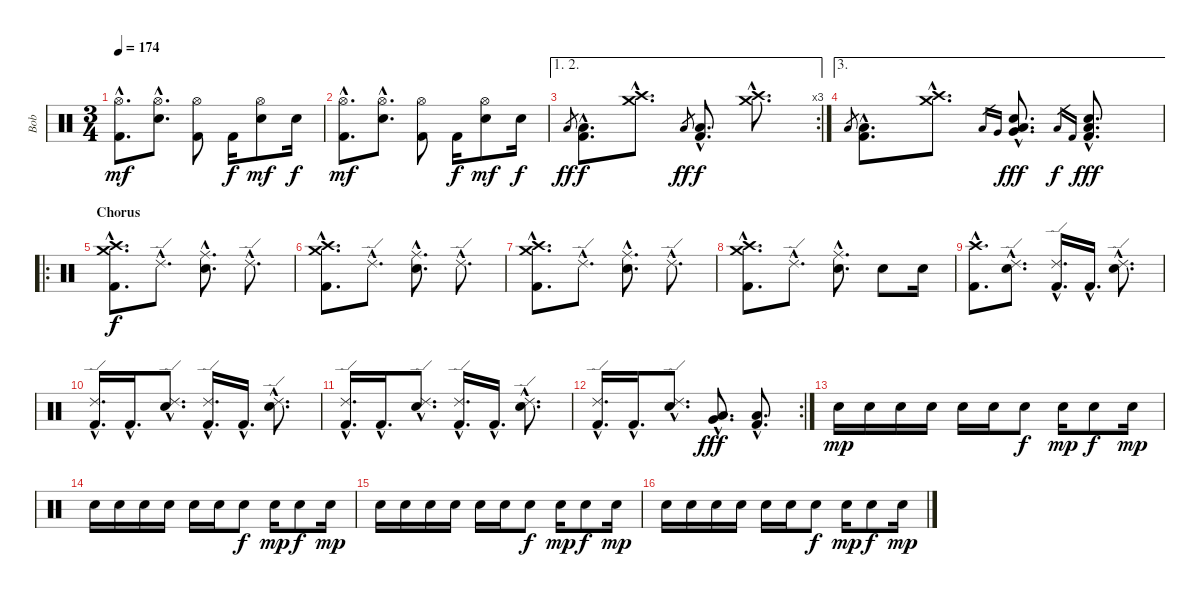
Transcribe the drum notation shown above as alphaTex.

\track ("Bob" "Bob") {instrument percussion}
\staff {score}
\articulation defaults
\ts (3 4)
\tempo 174
\clef neutral
\ks c
("Hi-Hat (open)"{hac} "Kick (hit) 2"{hac}).8{d dy mf} ("Hi-Hat (open)"{hac} "Electric Snare (hit)"{hac}).8{d} ("Hi-Hat (open)" "Kick (hit) 2").8 "Kick (hit) 2".16{dy f} ("Hi-Hat (open)" "Electric Snare (hit)").8{dy mf} "Electric Snare (hit)".16{dy f} |
("Hi-Hat (open)"{hac} "Kick (hit) 2"{hac}).8{d dy mf} ("Hi-Hat (open)"{hac} "Electric Snare (hit)"{hac}).8{d} ("Hi-Hat (open)" "Kick (hit) 2").8 "Kick (hit) 2".16{dy f} ("Hi-Hat (open)" "Electric Snare (hit)").8{dy mf} "Electric Snare (hit)".16{dy f} |
\ae (1 2)
\rc 3 "Low Floor Tom (hit)".8{gr dy ff}
("Low Floor Tom (hit)"{hac} "Kick (hit) 2"{hac}).8{d dy f} ("Crash medium (hit)"{hac} "Crash high (hit)"{hac}).8{d} "Low Floor Tom (hit)".8{gr dy ff} ("Low Floor Tom (hit)"{hac} "Kick (hit) 2"{hac}).8{d dy f} ("Crash medium (hit)"{hac} "Crash high (hit)"{hac}).8{d} |
\ae 3 "Low Floor Tom (hit)".8{gr}
("Low Floor Tom (hit)"{hac} "Kick (hit) 2"{hac}).8{d} ("Crash medium (hit)"{hac} "Crash high (hit)"{hac}).8{d} "Low Tom (hit)".16{gr} "Very Low Tom (hit)".16{gr} ("Low Tom (hit)"{hac} "Very Low Tom (hit)"{hac} "Electric Snare (hit)"{hac}).8{d dy fff} "Low Floor Tom (hit)".16{gr dy f} "Kick (hit) 2".16{gr} ("Electric Snare (hit)"{hac} "Low Floor Tom (hit)"{hac} "Kick (hit) 2"{hac}).8{d dy fff} |
\ro
\section ("" "Chorus")
("Crash high (hit)"{hac} "Crash medium (hit)"{hac} "Kick (hit) 2"{hac}).8{d dy f} "Ride (edge) 2"{hac}.8{d} ("Ride (middle)"{hac} "Electric Snare (hit)"{hac}).8{d} "Ride (edge) 2"{hac}.8{d} |
("Crash high (hit)"{hac} "Crash medium (hit)"{hac} "Kick (hit) 2"{hac}).8{d} "Ride (edge) 2"{hac}.8{d} ("Ride (middle)"{hac} "Electric Snare (hit)"{hac}).8{d} "Ride (edge) 2"{hac}.8{d} |
("Crash high (hit)"{hac} "Crash medium (hit)"{hac} "Kick (hit) 2"{hac}).8{d} "Ride (edge) 2"{hac}.8{d} ("Ride (middle)"{hac} "Electric Snare (hit)"{hac}).8{d} "Ride (edge) 2"{hac}.8{d} |
("Crash high (hit)"{hac} "Crash medium (hit)"{hac} "Kick (hit) 2"{hac}).8{d} "Ride (edge) 2"{hac}.8{d} ("Ride (middle)"{hac} "Electric Snare (hit)"{hac}).8{d} "Electric Snare (hit)".8 "Electric Snare (hit)".16 |
("Crash high (hit)"{hac} "Kick (hit) 2"{hac}).8{d} ("Ride (edge) 2"{hac} "Electric Snare (hit)"{hac}).8{d} ("Ride (edge) 2"{hac} "Kick (hit) 2"{hac}).16{d} "Kick (hit) 2"{hac}.16{d} ("Ride (edge) 2"{hac} "Electric Snare (hit)"{hac}).8{d} |
("Ride (edge) 2"{hac} "Kick (hit) 2"{hac}).16{d} "Kick (hit) 2"{hac}.16{d} ("Ride (edge) 2"{hac} "Electric Snare (hit)"{hac}).8{d} ("Ride (edge) 2"{hac} "Kick (hit) 2"{hac}).16{d} "Kick (hit) 2"{hac}.16{d} ("Ride (edge) 2"{hac} "Electric Snare (hit)"{hac}).8{d} |
("Ride (edge) 2"{hac} "Kick (hit) 2"{hac}).16{d} "Kick (hit) 2"{hac}.16{d} ("Ride (edge) 2"{hac} "Electric Snare (hit)"{hac}).8{d} ("Ride (edge) 2"{hac} "Kick (hit) 2"{hac}).16{d} "Kick (hit) 2"{hac}.16{d} ("Ride (edge) 2"{hac} "Electric Snare (hit)"{hac}).8{d} |
\rc 2
("Ride (edge) 2"{hac} "Kick (hit) 2"{hac}).16{d} "Kick (hit) 2"{hac}.16{d} ("Ride (edge) 2"{hac} "Electric Snare (hit)"{hac}).8{d} ("Low Tom (hit)"{hac} "Very Low Tom (hit)"{hac}).8{d dy fff} ("Low Floor Tom (hit)"{hac} "Kick (hit) 2"{hac}).8{d} |
"Snare (hit) 2".16{dy mp} "Snare (hit) 2".16 "Snare (hit) 2".16 "Snare (hit) 2".16 "Snare (hit) 2".16 "Snare (hit) 2".16 "Electric Snare (hit)".8{dy f} "Snare (hit) 2".16{dy mp} "Electric Snare (hit)".8{dy f} "Snare (hit) 2".16{dy mp} |
"Snare (hit) 2".16 "Snare (hit) 2".16 "Snare (hit) 2".16 "Snare (hit) 2".16 "Snare (hit) 2".16 "Snare (hit) 2".16 "Electric Snare (hit)".8{dy f} "Snare (hit) 2".16{dy mp} "Electric Snare (hit)".8{dy f} "Snare (hit) 2".16{dy mp} |
"Snare (hit) 2".16 "Snare (hit) 2".16 "Snare (hit) 2".16 "Snare (hit) 2".16 "Snare (hit) 2".16 "Snare (hit) 2".16 "Electric Snare (hit)".8{dy f} "Snare (hit) 2".16{dy mp} "Electric Snare (hit)".8{dy f} "Snare (hit) 2".16{dy mp} |
"Snare (hit) 2".16 "Snare (hit) 2".16 "Snare (hit) 2".16 "Snare (hit) 2".16 "Snare (hit) 2".16 "Snare (hit) 2".16 "Electric Snare (hit)".8{dy f} "Snare (hit) 2".16{dy mp} "Electric Snare (hit)".8{dy f} "Snare (hit) 2".16{dy mp}
